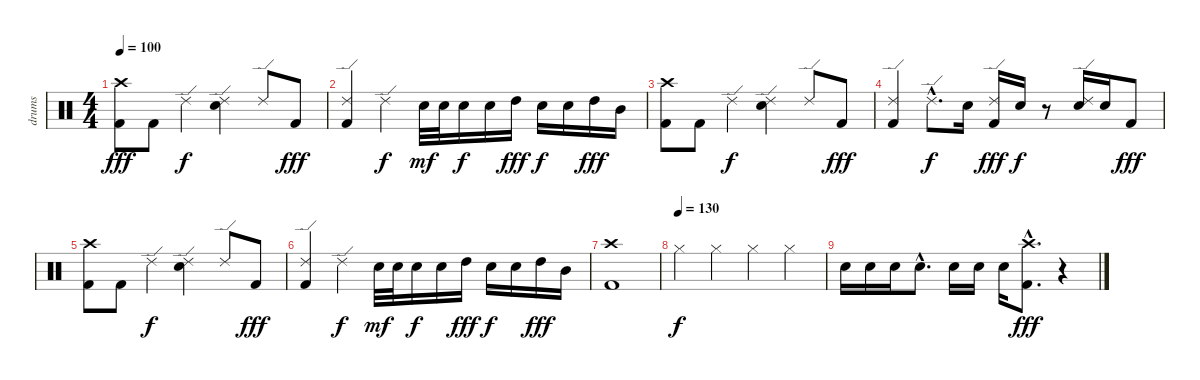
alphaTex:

\track ("drums" "drums") {instrument percussion}
\staff {score}
\articulation defaults
\ts (4 4)
\tempo 100
\clef neutral
\ks c
("Crash high (hit)" "Kick (hit) 2").8{dy fff} "Kick (hit) 2".8 "Ride (edge) 2".4{dy f} ("Ride (edge) 2" "Snare (hit) 2").4 "Ride (edge) 2".8 "Kick (hit) 2".8{dy fff} |
("Ride (edge) 2" "Kick (hit) 2").4 "Ride (edge) 2".4{dy f} "Snare (hit) 2".32{dy mf} "Snare (hit) 2".32 "Snare (hit) 2".16{dy f} "Snare (hit) 2".16 "High Tom (hit)".16{dy fff} "Snare (hit) 2".16{dy f} "Snare (hit) 2".16 "High Tom (hit)".16{dy fff} "Mid Tom (hit)".16 |
("Crash high (hit)" "Kick (hit) 2").8 "Kick (hit) 2".8 "Ride (edge) 2".4{dy f} ("Ride (edge) 2" "Snare (hit) 2").4 "Ride (edge) 2".8 "Kick (hit) 2".8{dy fff} |
("Ride (edge) 2" "Kick (hit) 2").4 "Ride (edge) 2"{hac}.8{d dy f} "Snare (hit) 2".16 ("Ride (edge) 2" "Kick (hit) 2").16{dy fff} "Snare (hit) 2".16{dy f} r.8 ("Ride (edge) 2" "Snare (hit) 2").16 "Snare (hit) 2".16 "Kick (hit) 2".8{dy fff} |
("Crash high (hit)" "Kick (hit) 2").8 "Kick (hit) 2".8 "Ride (edge) 2".4{dy f} ("Ride (edge) 2" "Snare (hit) 2").4 "Ride (edge) 2".8 "Kick (hit) 2".8{dy fff} |
("Ride (edge) 2" "Kick (hit) 2").4 "Ride (edge) 2".4{dy f} "Snare (hit) 2".32{dy mf} "Snare (hit) 2".32 "Snare (hit) 2".16{dy f} "Snare (hit) 2".16 "High Tom (hit)".16{dy fff} "Snare (hit) 2".16{dy f} "Snare (hit) 2".16 "High Tom (hit)".16{dy fff} "Mid Tom (hit)".16 |
("Crash high (hit)" "Kick (hit) 2").1 |
\tempo (130)
"Hi-Hat (closed)".4{dy f} "Hi-Hat (closed)".4 "Hi-Hat (closed)".4 "Hi-Hat (closed)".4 |
"Snare (hit) 2".16 "Snare (hit) 2".16 "Snare (hit) 2".16 "Snare (hit) 2"{hac}.8{d} "Snare (hit) 2".16 "Snare (hit) 2".16 "Snare (hit) 2".16 ("Crash high (hit)"{hac} "Kick (hit) 2"{hac}).8{d dy fff} r.4
